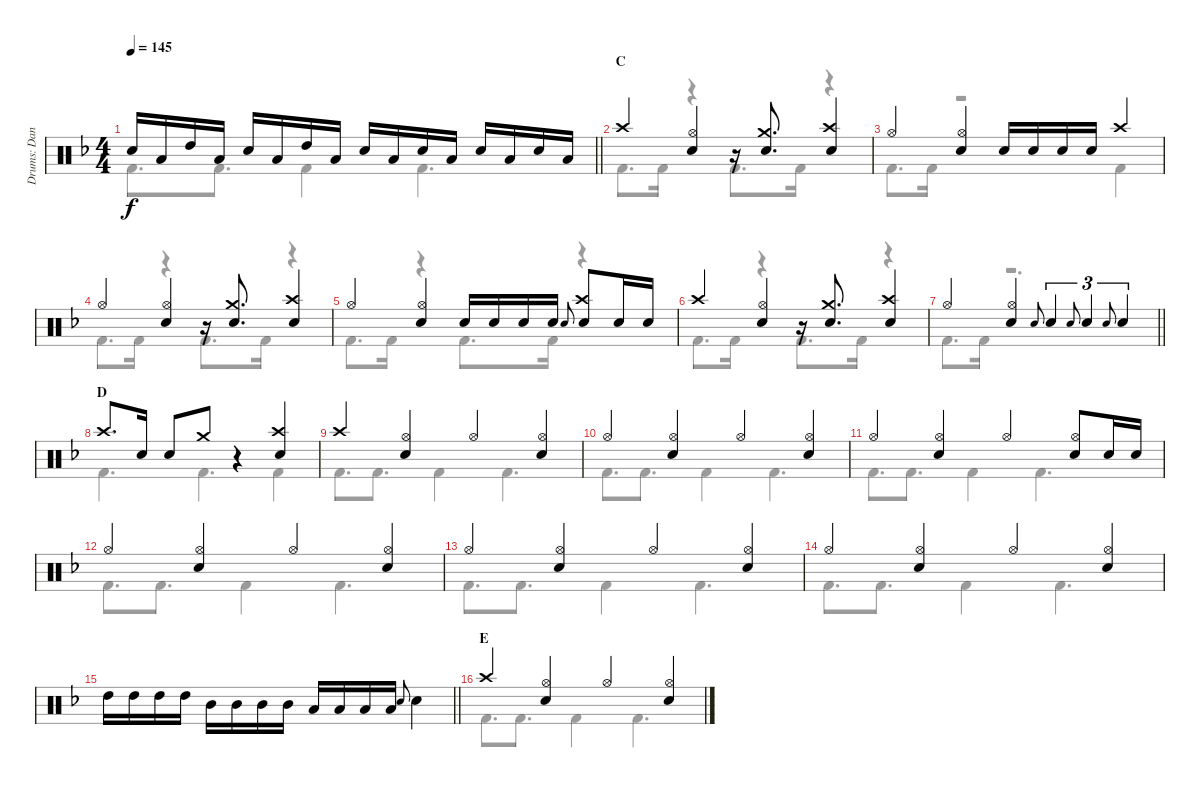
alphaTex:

\track ("Drums: Dana" "Drums: Dan") {instrument percussion}
\staff {score}
\articulation defaults
\voice
\ts (4 4)
\tempo 145
\clef neutral
\barLineRight lightlight
\ks f "Snare (hit) 2".16{dy f} "Low Tom (hit)".16 "High Tom (hit)".16 "Low Tom (hit)".16 "Snare (hit) 2".16 "Low Tom (hit)".16 "High Tom (hit)".16 "Low Tom (hit)".16 "Snare (hit) 2".16 "Low Tom (hit)".16 "Snare (hit) 2".16 "Low Tom (hit)".16 "Snare (hit) 2".16 "Low Tom (hit)".16 "Snare (hit) 2".16 "Low Tom (hit)".16
|
\section ("" "C")
"Crash high (hit)".4 ("Hi-Hat (open)" "Snare (hit) 2").4 r.16 ("Crash medium (hit)" "Snare (hit) 2").8{d} ("Crash high (hit)" "Snare (hit) 2").4 |
"Hi-Hat (open)".4 ("Hi-Hat (open)" "Snare (hit) 2").4 "Snare (hit) 2".16 "Snare (hit) 2".16 "Snare (hit) 2".16 "Snare (hit) 2".16 "Crash high (hit)".4 |
"Hi-Hat (open)".4 ("Hi-Hat (open)" "Snare (hit) 2").4 r.16 ("Crash medium (hit)" "Snare (hit) 2").8{d} ("Crash high (hit)" "Snare (hit) 2").4 |
"Hi-Hat (open)".4 ("Hi-Hat (open)" "Snare (hit) 2").4 "Snare (hit) 2".16 "Snare (hit) 2".16 "Snare (hit) 2".16 "Snare (hit) 2".16 "Electric Snare (hit)".8{gr onbeat} ("Crash high (hit)" "Snare (hit) 2").8 "Snare (hit) 2".16 "Snare (hit) 2".16 |
"Crash high (hit)".4 ("Hi-Hat (open)" "Snare (hit) 2").4 r.16 ("Crash medium (hit)" "Snare (hit) 2").8{d} ("Crash high (hit)" "Snare (hit) 2").4 |
\barLineRight lightlight "Hi-Hat (open)".4
("Hi-Hat (open)" "Snare (hit) 2").4 "Electric Snare (hit)".8{gr onbeat} "Snare (hit) 2".4{tu (3 2)} "Electric Snare (hit)".8{gr onbeat} "Snare (hit) 2".4{tu (3 2)} "Electric Snare (hit)".8{gr onbeat} "Snare (hit) 2".4{tu (3 2)} |
\section ("" "D")
"Crash high (hit)".8{d} "Snare (hit) 2".16 "Snare (hit) 2".8 "Crash medium (hit)".8 r.4 ("Crash high (hit)" "Snare (hit) 2").4 |
"Crash high (hit)".4 ("Hi-Hat (open)" "Snare (hit) 2").4 "Hi-Hat (open)".4 ("Hi-Hat (open)" "Snare (hit) 2").4 |
"Hi-Hat (open)".4 ("Hi-Hat (open)" "Snare (hit) 2").4 "Hi-Hat (open)".4 ("Hi-Hat (open)" "Snare (hit) 2").4 |
"Hi-Hat (open)".4 ("Hi-Hat (open)" "Snare (hit) 2").4 "Hi-Hat (open)".4 ("Hi-Hat (open)" "Snare (hit) 2").8 "Snare (hit) 2".16 "Snare (hit) 2".16 |
"Hi-Hat (open)".4 ("Hi-Hat (open)" "Snare (hit) 2").4 "Hi-Hat (open)".4 ("Hi-Hat (open)" "Snare (hit) 2").4 |
"Hi-Hat (open)".4 ("Hi-Hat (open)" "Snare (hit) 2").4 "Hi-Hat (open)".4 ("Hi-Hat (open)" "Snare (hit) 2").4 |
"Hi-Hat (open)".4 ("Hi-Hat (open)" "Snare (hit) 2").4 "Hi-Hat (open)".4 ("Hi-Hat (open)" "Snare (hit) 2").4 |
\barLineRight lightlight "High Tom (hit)".16 "High Tom (hit)".16 "High Tom (hit)".16 "High Tom (hit)".16 "Mid Tom (hit)".16 "Mid Tom (hit)".16 "Mid Tom (hit)".16 "Mid Tom (hit)".16 "Low Tom (hit)".16 "Low Tom (hit)".16 "Low Tom (hit)".16 "Low Tom (hit)".16 "Electric Snare (hit)".8{gr onbeat} "Snare (hit) 2".4
|
\section ("" "E")
"Crash high (hit)".4 ("Hi-Hat (open)" "Snare (hit) 2").4 "Hi-Hat (open)".4 ("Hi-Hat (open)" "Snare (hit) 2").4
\voice
\clef neutral
\ottava regular
\simile none
\barLineRight lightlight
\ks f "Kick (hit) 2".8{d dy f} "Kick (hit) 2".8{d} "Kick (hit) 2".4 "Kick (hit) 2".4{d}
|
"Kick (hit) 2".8{d} "Kick (hit) 2".16 r.4 "Kick (hit) 2".8{d} "Kick (hit) 2".16 r.4 |
"Kick (hit) 2".8{d} "Kick (hit) 2".16 r.2 "Kick (hit) 2".4 |
"Kick (hit) 2".8{d} "Kick (hit) 2".16 r.4 "Kick (hit) 2".8{d} "Kick (hit) 2".16 r.4 |
"Kick (hit) 2".8{d} "Kick (hit) 2".16 r.4 "Kick (hit) 2".8{d} "Kick (hit) 2".16 r.4 |
"Kick (hit) 2".8{d} "Kick (hit) 2".16 r.4 "Kick (hit) 2".8{d} "Kick (hit) 2".16 r.4 |
\barLineRight lightlight "Kick (hit) 2".8{d} "Kick (hit) 2".16
r.2{d} |
"Kick (hit) 2".4{d} "Kick (hit) 2".4{d} "Kick (hit) 2".4 |
"Kick (hit) 2".8{d} "Kick (hit) 2".8{d} "Kick (hit) 2".4 "Kick (hit) 2".4{d} |
"Kick (hit) 2".8{d} "Kick (hit) 2".8{d} "Kick (hit) 2".4 "Kick (hit) 2".4{d} |
"Kick (hit) 2".8{d} "Kick (hit) 2".8{d} "Kick (hit) 2".4 "Kick (hit) 2".4{d} |
"Kick (hit) 2".8{d} "Kick (hit) 2".8{d} "Kick (hit) 2".4 "Kick (hit) 2".4{d} |
"Kick (hit) 2".8{d} "Kick (hit) 2".8{d} "Kick (hit) 2".4 "Kick (hit) 2".4{d} |
"Kick (hit) 2".8{d} "Kick (hit) 2".8{d} "Kick (hit) 2".4 "Kick (hit) 2".4{d} |
\barLineRight lightlight
|
"Kick (hit) 2".8{d} "Kick (hit) 2".8{d} "Kick (hit) 2".4 "Kick (hit) 2".4{d}
